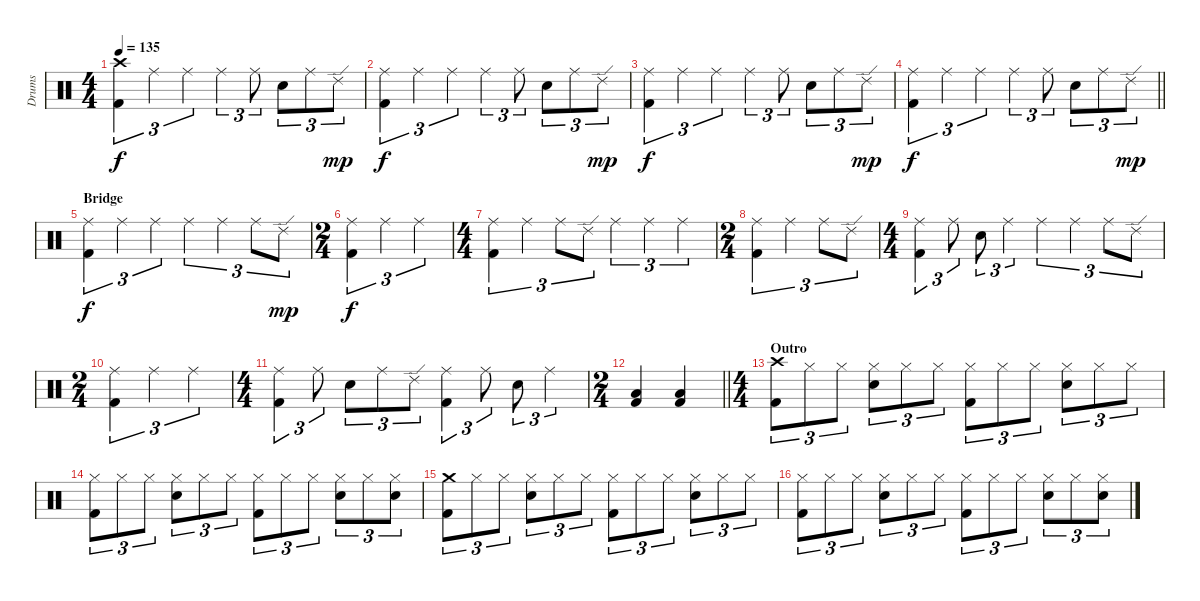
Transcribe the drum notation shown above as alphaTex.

\track ("Drums" "Drums") {instrument percussion}
\staff {score}
\articulation defaults
\ts (4 4)
\tempo 135
\clef neutral
\ks c
("Crash high (hit)" "Kick (hit) 2").4{tu (3 2) dy f} "Ride (middle)".4{tu (3 2)} "Ride (middle)".4{tu (3 2)} "Ride (middle)".4{tu (3 2)} "Ride (middle)".8{tu (3 2)} "Snare (hit) 2".8{tu (3 2)} "Ride (middle)".8{tu (3 2)} "Ride (edge) 2".8{tu (3 2) dy mp} |
("Ride (middle)" "Kick (hit) 2").4{tu (3 2) dy f} "Ride (middle)".4{tu (3 2)} "Ride (middle)".4{tu (3 2)} "Ride (middle)".4{tu (3 2)} "Ride (middle)".8{tu (3 2)} "Snare (hit) 2".8{tu (3 2)} "Ride (middle)".8{tu (3 2)} "Ride (edge) 2".8{tu (3 2) dy mp} |
("Ride (middle)" "Kick (hit) 2").4{tu (3 2) dy f} "Ride (middle)".4{tu (3 2)} "Ride (middle)".4{tu (3 2)} "Ride (middle)".4{tu (3 2)} "Ride (middle)".8{tu (3 2)} "Snare (hit) 2".8{tu (3 2)} "Ride (middle)".8{tu (3 2)} "Ride (edge) 2".8{tu (3 2) dy mp} |
\barLineRight lightlight
("Ride (middle)" "Kick (hit) 2").4{tu (3 2) dy f} "Ride (middle)".4{tu (3 2)} "Ride (middle)".4{tu (3 2)} "Ride (middle)".4{tu (3 2)} "Ride (middle)".8{tu (3 2)} "Snare (hit) 2".8{tu (3 2)} "Ride (middle)".8{tu (3 2)} "Ride (edge) 2".8{tu (3 2) dy mp} |
\section ("" "Bridge")
("Ride (middle)" "Kick (hit) 2").4{tu (3 2) dy f} "Ride (middle)".4{tu (3 2)} "Ride (middle)".4{tu (3 2)} "Ride (middle)".4{tu (3 2)} "Ride (middle)".4{tu (3 2)} "Ride (middle)".8{tu (3 2)} "Ride (edge) 2".8{tu (3 2) dy mp} |
\ts (2 4)
("Ride (middle)" "Kick (hit) 2").4{tu (3 2) dy f} "Ride (middle)".4{tu (3 2)} "Ride (middle)".4{tu (3 2)} |
\ts (4 4)
("Ride (middle)" "Kick (hit) 2").4{tu (3 2)} "Ride (middle)".4{tu (3 2)} "Ride (middle)".8{tu (3 2)} "Ride (edge) 2".8{tu (3 2)} "Ride (middle)".4{tu (3 2)} "Ride (middle)".4{tu (3 2)} "Ride (middle)".4{tu (3 2)} |
\ts (2 4)
("Ride (middle)" "Kick (hit) 2").4{tu (3 2)} "Ride (middle)".4{tu (3 2)} "Ride (middle)".8{tu (3 2)} "Ride (edge) 2".8{tu (3 2)} |
\ts (4 4)
("Ride (middle)" "Kick (hit) 2").4{tu (3 2)} "Ride (middle)".8{tu (3 2)} "Snare (hit) 2".8{tu (3 2)} "Ride (middle)".4{tu (3 2)} "Ride (middle)".4{tu (3 2)} "Ride (middle)".4{tu (3 2)} "Ride (middle)".8{tu (3 2)} "Ride (edge) 2".8{tu (3 2)} |
\ts (2 4)
("Ride (middle)" "Kick (hit) 2").4{tu (3 2)} "Ride (middle)".4{tu (3 2)} "Ride (middle)".4{tu (3 2)} |
\ts (4 4)
("Ride (middle)" "Kick (hit) 2").4{tu (3 2)} "Ride (middle)".8{tu (3 2)} "Snare (hit) 2".8{tu (3 2)} "Ride (middle)".8{tu (3 2)} "Ride (edge) 2".8{tu (3 2)} ("Ride (middle)" "Kick (hit) 2").4{tu (3 2)} "Ride (middle)".8{tu (3 2)} "Snare (hit) 2".8{tu (3 2)} "Ride (middle)".4{tu (3 2)} |
\ts (2 4)
\barLineRight lightlight
("Low Tom (hit)" "Kick (hit) 2").4 ("Low Tom (hit)" "Kick (hit) 2").4 |
\ts (4 4)
\section ("" "Outro")
("Crash high (hit)" "Kick (hit) 2").8{tu (3 2)} "Hi-Hat (closed)".8{tu (3 2)} "Hi-Hat (closed)".8{tu (3 2)} ("Hi-Hat (closed)" "Snare (hit) 2").8{tu (3 2)} "Hi-Hat (closed)".8{tu (3 2)} "Hi-Hat (closed)".8{tu (3 2)} ("Hi-Hat (closed)" "Kick (hit) 2").8{tu (3 2)} "Hi-Hat (closed)".8{tu (3 2)} "Hi-Hat (closed)".8{tu (3 2)} ("Hi-Hat (closed)" "Snare (hit) 2").8{tu (3 2)} "Hi-Hat (closed)".8{tu (3 2)} "Hi-Hat (closed)".8{tu (3 2)} |
("Hi-Hat (closed)" "Kick (hit) 2").8{tu (3 2)} "Hi-Hat (closed)".8{tu (3 2)} "Hi-Hat (closed)".8{tu (3 2)} ("Hi-Hat (closed)" "Snare (hit) 2").8{tu (3 2)} "Hi-Hat (closed)".8{tu (3 2)} "Hi-Hat (closed)".8{tu (3 2)} ("Hi-Hat (closed)" "Kick (hit) 2").8{tu (3 2)} "Hi-Hat (closed)".8{tu (3 2)} "Hi-Hat (closed)".8{tu (3 2)} ("Hi-Hat (closed)" "Snare (hit) 2").8{tu (3 2)} "Hi-Hat (closed)".8{tu (3 2)} ("Hi-Hat (closed)" "Snare (hit) 2").8{tu (3 2)} |
("Crash medium (hit)" "Kick (hit) 2").8{tu (3 2)} "Hi-Hat (closed)".8{tu (3 2)} "Hi-Hat (closed)".8{tu (3 2)} ("Hi-Hat (closed)" "Snare (hit) 2").8{tu (3 2)} "Hi-Hat (closed)".8{tu (3 2)} "Hi-Hat (closed)".8{tu (3 2)} ("Hi-Hat (closed)" "Kick (hit) 2").8{tu (3 2)} "Hi-Hat (closed)".8{tu (3 2)} "Hi-Hat (closed)".8{tu (3 2)} ("Hi-Hat (closed)" "Snare (hit) 2").8{tu (3 2)} "Hi-Hat (closed)".8{tu (3 2)} "Hi-Hat (closed)".8{tu (3 2)} |
("Hi-Hat (closed)" "Kick (hit) 2").8{tu (3 2)} "Hi-Hat (closed)".8{tu (3 2)} "Hi-Hat (closed)".8{tu (3 2)} ("Hi-Hat (closed)" "Snare (hit) 2").8{tu (3 2)} "Hi-Hat (closed)".8{tu (3 2)} "Hi-Hat (closed)".8{tu (3 2)} ("Hi-Hat (closed)" "Kick (hit) 2").8{tu (3 2)} "Hi-Hat (closed)".8{tu (3 2)} "Hi-Hat (closed)".8{tu (3 2)} ("Hi-Hat (closed)" "Snare (hit) 2").8{tu (3 2)} "Hi-Hat (closed)".8{tu (3 2)} ("Hi-Hat (closed)" "Snare (hit) 2").8{tu (3 2)}
